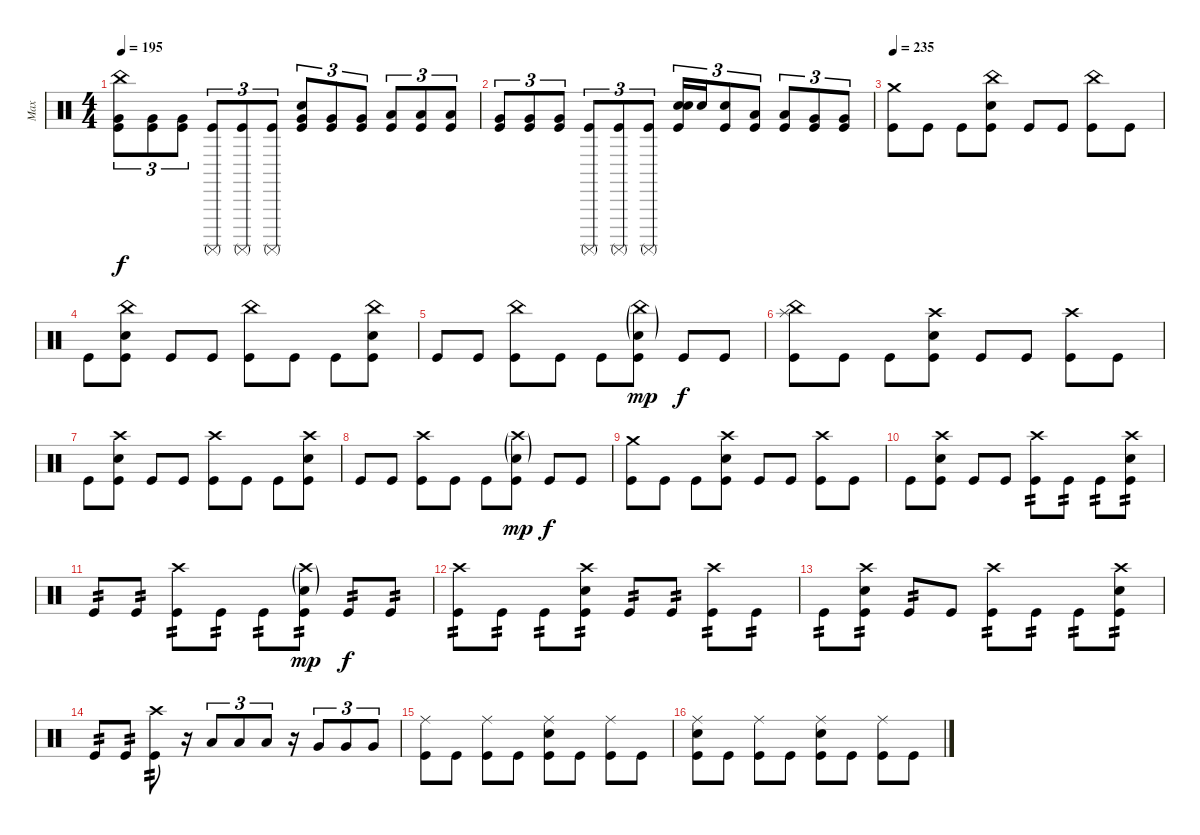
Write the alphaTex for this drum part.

\track ("Max" "Max") {instrument percussion}
\staff {score}
\articulation defaults
\ts (4 4)
\tempo 195
\clef neutral
\ks c
("China (hit)" "Very Low Tom (hit)" "Kick (hit)").8{tu (3 2) dy f} ("Very Low Tom (hit)" "Kick (hit)").8{tu (3 2)} ("Very Low Tom (hit)" "Kick (hit)").8{tu (3 2)} ("Surdo (mute)" "Kick (hit)").8{tu (3 2)} ("Surdo (mute)" "Kick (hit)").8{tu (3 2)} ("Surdo (mute)" "Kick (hit)").8{tu (3 2)} ("Very Low Tom (hit)" "Electric Snare (hit)" "Kick (hit)").8{tu (3 2)} ("Very Low Tom (hit)" "Kick (hit)").8{tu (3 2)} ("Very Low Tom (hit)" "Kick (hit)").8{tu (3 2)} ("Low Tom (hit)" "Kick (hit)").8{tu (3 2)} ("Low Tom (hit)" "Kick (hit)").8{tu (3 2)} ("Low Tom (hit)" "Kick (hit)").8{tu (3 2)} |
("Very Low Tom (hit)" "Kick (hit)").8{tu (3 2)} ("Very Low Tom (hit)" "Kick (hit)").8{tu (3 2)} ("Very Low Tom (hit)" "Kick (hit)").8{tu (3 2)} ("Surdo (mute)" "Kick (hit)").8{tu (3 2)} ("Surdo (mute)" "Kick (hit)").8{tu (3 2)} ("Surdo (mute)" "Kick (hit)").8{tu (3 2)} ("Electric Snare (hit)" "Electric Snare (hit)" "Kick (hit)").16{tu (3 2)} "Electric Snare (hit)".16{tu (3 2)} ("Electric Snare (hit)" "Kick (hit)").8{tu (3 2)} ("Low Tom (hit)" "Kick (hit)").8{tu (3 2)} ("Low Tom (hit)" "Kick (hit)").8{tu (3 2)} ("Very Low Tom (hit)" "Kick (hit)").8{tu (3 2)} ("Very Low Tom (hit)" "Kick (hit)").8{tu (3 2)} |
\tempo 235
("Crash medium (hit)" "Kick (hit)").8 "Kick (hit)".8 "Kick (hit)".8 ("China (hit)" "Electric Snare (hit)" "Kick (hit)").8 "Kick (hit)".8 "Kick (hit)".8 ("China (hit)" "Kick (hit)").8 "Kick (hit)".8 |
"Kick (hit)".8 ("China (hit)" "Electric Snare (hit)" "Kick (hit)").8 "Kick (hit)".8 "Kick (hit)".8 ("China (hit)" "Kick (hit)").8 "Kick (hit)".8 "Kick (hit)".8 ("China (hit)" "Electric Snare (hit)" "Kick (hit)").8 |
"Kick (hit)".8 "Kick (hit)".8 ("China (hit)" "Kick (hit)").8 "Kick (hit)".8 "Kick (hit)".8 ("China (hit)"{g} "Electric Snare (hit)"{g} "Kick (hit)").8{dy mp} "Kick (hit)".8{dy f} "Kick (hit)".8 |
("Splash (hit)" "China (hit)" "Kick (hit)").8 "Kick (hit)".8 "Kick (hit)".8 ("Crash high (hit)" "Electric Snare (hit)" "Kick (hit)").8 "Kick (hit)".8 "Kick (hit)".8 ("Crash high (hit)" "Kick (hit)").8 "Kick (hit)".8 |
"Kick (hit)".8 ("Crash high (hit)" "Electric Snare (hit)" "Kick (hit)").8 "Kick (hit)".8 "Kick (hit)".8 ("Crash high (hit)" "Kick (hit)").8 "Kick (hit)".8 "Kick (hit)".8 ("Crash high (hit)" "Electric Snare (hit)" "Kick (hit)").8 |
"Kick (hit)".8 "Kick (hit)".8 ("Crash high (hit)" "Kick (hit)").8 "Kick (hit)".8 "Kick (hit)".8 ("Crash high (hit)"{g} "Electric Snare (hit)"{g} "Kick (hit)").8{dy mp} "Kick (hit)".8{dy f} "Kick (hit)".8 |
("Crash medium (hit)" "Kick (hit)").8 "Kick (hit)".8 "Kick (hit)".8 ("Crash high (hit)" "Electric Snare (hit)" "Kick (hit)").8 "Kick (hit)".8 "Kick (hit)".8 ("Crash high (hit)" "Kick (hit)").8 "Kick (hit)".8 |
"Kick (hit)".8 ("Crash high (hit)" "Electric Snare (hit)" "Kick (hit)").8 "Kick (hit)".8 "Kick (hit)".8 ("Crash high (hit)" "Kick (hit)").8{tp 2} "Kick (hit)".8{tp 2} "Kick (hit)".8{tp 2} ("Crash high (hit)" "Electric Snare (hit)" "Kick (hit)").8{tp 2} |
"Kick (hit)".8{tp 2} "Kick (hit)".8{tp 2} ("Crash high (hit)" "Kick (hit)").8{tp 2} "Kick (hit)".8{tp 2} "Kick (hit)".8{tp 2} ("Crash high (hit)"{g} "Electric Snare (hit)"{g} "Kick (hit)").8{tp 2 dy mp} "Kick (hit)".8{tp 2 dy f} "Kick (hit)".8{tp 2} |
("Crash high (hit)" "Kick (hit)").8{tp 2} "Kick (hit)".8{tp 2} "Kick (hit)".8{tp 2} ("Crash high (hit)" "Electric Snare (hit)" "Kick (hit)").8{tp 2} "Kick (hit)".8{tp 2} "Kick (hit)".8{tp 2} ("Crash high (hit)" "Kick (hit)").8{tp 2} "Kick (hit)".8{tp 2} |
"Kick (hit)".8{tp 2} ("Crash high (hit)" "Electric Snare (hit)" "Kick (hit)").8{tp 2} "Kick (hit)".8{tp 2} "Kick (hit)".8 ("Crash high (hit)" "Kick (hit)").8{tp 2} "Kick (hit)".8{tp 2} "Kick (hit)".8{tp 2} ("Crash high (hit)" "Electric Snare (hit)" "Kick (hit)").8{tp 2} |
"Kick (hit)".8{tp 2} "Kick (hit)".8{tp 2} ("Crash high (hit)" "Kick (hit)").8{tp 2} r.16 "Low Tom (hit)".8{tu (3 2)} "Low Tom (hit)".8{tu (3 2)} "Low Tom (hit)".8{tu (3 2)} r.16 "Very Low Tom (hit)".8{tu (3 2)} "Very Low Tom (hit)".8{tu (3 2)} "Very Low Tom (hit)".8{tu (3 2)} |
("Ride (middle)" "Kick (hit)").8 "Kick (hit)".8 ("Ride (middle)" "Kick (hit)").8 "Kick (hit)".8 ("Ride (middle)" "Electric Snare (hit)" "Kick (hit)").8 "Kick (hit)".8 ("Ride (middle)" "Kick (hit)").8 "Kick (hit)".8 |
("Ride (middle)" "Electric Snare (hit)" "Kick (hit)").8 "Kick (hit)".8 ("Ride (middle)" "Kick (hit)").8 "Kick (hit)".8 ("Ride (middle)" "Electric Snare (hit)" "Kick (hit)").8 "Kick (hit)".8 ("Ride (middle)" "Kick (hit)").8 "Kick (hit)".8
